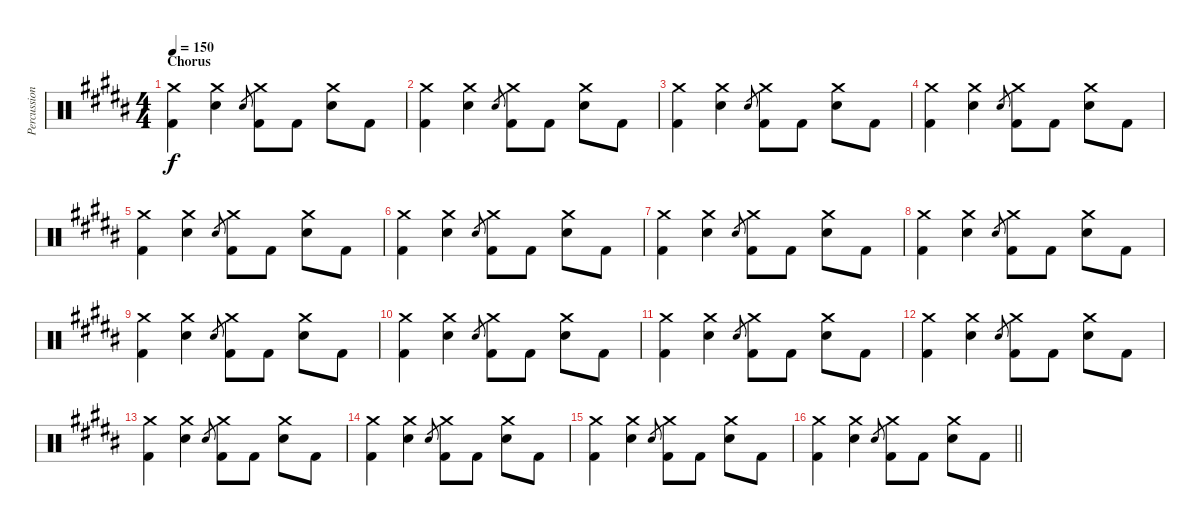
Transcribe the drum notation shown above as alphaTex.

\track ("Percussion" "Percussion") {instrument percussion}
\staff {score}
\articulation defaults
\ts (4 4)
\section ("" "Chorus")
\tempo 150
\clef neutral
\ks b
("Crash medium (hit)" "Kick (hit) 2").4{dy f} ("Crash medium (hit)" "Electric Snare (hit)").4 "Electric Snare (hit)".8{gr} ("Crash medium (hit)" "Kick (hit) 2").8 "Kick (hit) 2".8 ("Crash medium (hit)" "Electric Snare (hit)").8 "Kick (hit) 2".8 |
("Crash medium (hit)" "Kick (hit) 2").4 ("Crash medium (hit)" "Electric Snare (hit)").4 "Electric Snare (hit)".8{gr} ("Crash medium (hit)" "Kick (hit) 2").8 "Kick (hit) 2".8 ("Crash medium (hit)" "Electric Snare (hit)").8 "Kick (hit) 2".8 |
("Crash medium (hit)" "Kick (hit) 2").4 ("Crash medium (hit)" "Electric Snare (hit)").4 "Electric Snare (hit)".8{gr} ("Crash medium (hit)" "Kick (hit) 2").8 "Kick (hit) 2".8 ("Crash medium (hit)" "Electric Snare (hit)").8 "Kick (hit) 2".8 |
("Crash medium (hit)" "Kick (hit) 2").4 ("Crash medium (hit)" "Electric Snare (hit)").4 "Electric Snare (hit)".8{gr} ("Crash medium (hit)" "Kick (hit) 2").8 "Kick (hit) 2".8 ("Crash medium (hit)" "Electric Snare (hit)").8 "Kick (hit) 2".8 |
("Crash medium (hit)" "Kick (hit) 2").4 ("Crash medium (hit)" "Electric Snare (hit)").4 "Electric Snare (hit)".8{gr} ("Crash medium (hit)" "Kick (hit) 2").8 "Kick (hit) 2".8 ("Crash medium (hit)" "Electric Snare (hit)").8 "Kick (hit) 2".8 |
("Crash medium (hit)" "Kick (hit) 2").4 ("Crash medium (hit)" "Electric Snare (hit)").4 "Electric Snare (hit)".8{gr} ("Crash medium (hit)" "Kick (hit) 2").8 "Kick (hit) 2".8 ("Crash medium (hit)" "Electric Snare (hit)").8 "Kick (hit) 2".8 |
("Crash medium (hit)" "Kick (hit) 2").4 ("Crash medium (hit)" "Electric Snare (hit)").4 "Electric Snare (hit)".8{gr} ("Crash medium (hit)" "Kick (hit) 2").8 "Kick (hit) 2".8 ("Crash medium (hit)" "Electric Snare (hit)").8 "Kick (hit) 2".8 |
("Crash medium (hit)" "Kick (hit) 2").4 ("Crash medium (hit)" "Electric Snare (hit)").4 "Electric Snare (hit)".8{gr} ("Crash medium (hit)" "Kick (hit) 2").8 "Kick (hit) 2".8 ("Crash medium (hit)" "Electric Snare (hit)").8 "Kick (hit) 2".8 |
("Crash medium (hit)" "Kick (hit) 2").4 ("Crash medium (hit)" "Electric Snare (hit)").4 "Electric Snare (hit)".8{gr} ("Crash medium (hit)" "Kick (hit) 2").8 "Kick (hit) 2".8 ("Crash medium (hit)" "Electric Snare (hit)").8 "Kick (hit) 2".8 |
("Crash medium (hit)" "Kick (hit) 2").4 ("Crash medium (hit)" "Electric Snare (hit)").4 "Electric Snare (hit)".8{gr} ("Crash medium (hit)" "Kick (hit) 2").8 "Kick (hit) 2".8 ("Crash medium (hit)" "Electric Snare (hit)").8 "Kick (hit) 2".8 |
("Crash medium (hit)" "Kick (hit) 2").4 ("Crash medium (hit)" "Electric Snare (hit)").4 "Electric Snare (hit)".8{gr} ("Crash medium (hit)" "Kick (hit) 2").8 "Kick (hit) 2".8 ("Crash medium (hit)" "Electric Snare (hit)").8 "Kick (hit) 2".8 |
("Crash medium (hit)" "Kick (hit) 2").4 ("Crash medium (hit)" "Electric Snare (hit)").4 "Electric Snare (hit)".8{gr} ("Crash medium (hit)" "Kick (hit) 2").8 "Kick (hit) 2".8 ("Crash medium (hit)" "Electric Snare (hit)").8 "Kick (hit) 2".8 |
("Crash medium (hit)" "Kick (hit) 2").4 ("Crash medium (hit)" "Electric Snare (hit)").4 "Electric Snare (hit)".8{gr} ("Crash medium (hit)" "Kick (hit) 2").8 "Kick (hit) 2".8 ("Crash medium (hit)" "Electric Snare (hit)").8 "Kick (hit) 2".8 |
("Crash medium (hit)" "Kick (hit) 2").4 ("Crash medium (hit)" "Electric Snare (hit)").4 "Electric Snare (hit)".8{gr} ("Crash medium (hit)" "Kick (hit) 2").8 "Kick (hit) 2".8 ("Crash medium (hit)" "Electric Snare (hit)").8 "Kick (hit) 2".8 |
("Crash medium (hit)" "Kick (hit) 2").4 ("Crash medium (hit)" "Electric Snare (hit)").4 "Electric Snare (hit)".8{gr} ("Crash medium (hit)" "Kick (hit) 2").8 "Kick (hit) 2".8 ("Crash medium (hit)" "Electric Snare (hit)").8 "Kick (hit) 2".8 |
\barLineRight lightlight
("Crash medium (hit)" "Kick (hit) 2").4 ("Crash medium (hit)" "Electric Snare (hit)").4 "Electric Snare (hit)".8{gr} ("Crash medium (hit)" "Kick (hit) 2").8 "Kick (hit) 2".8 ("Crash medium (hit)" "Electric Snare (hit)").8 "Kick (hit) 2".8
